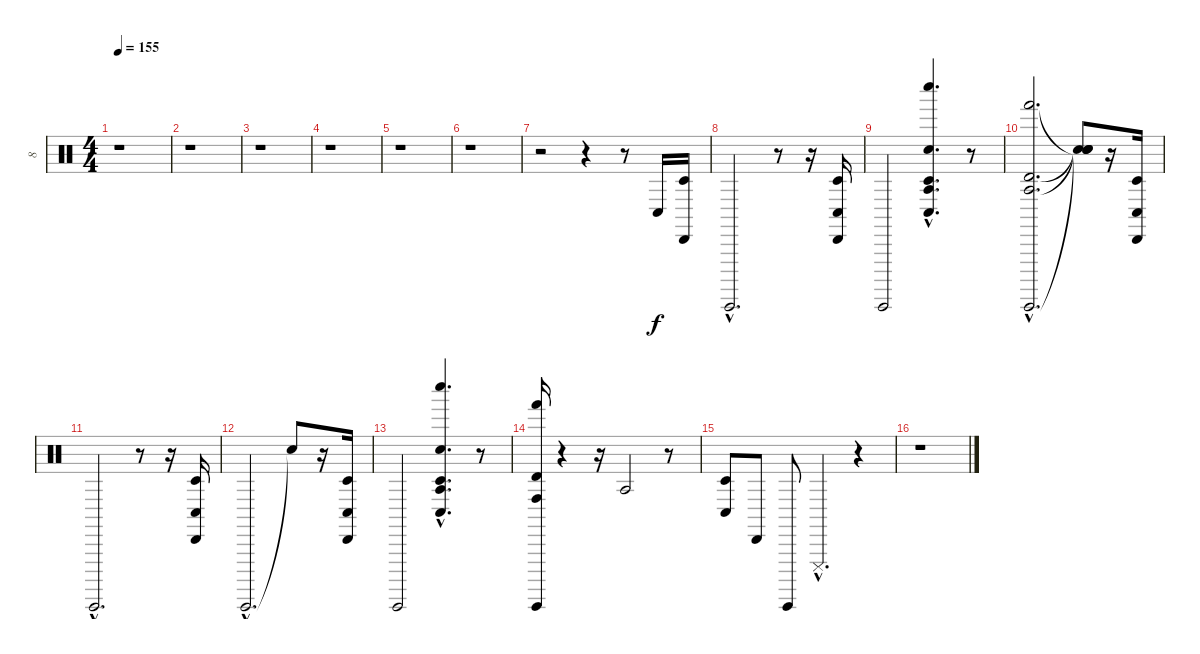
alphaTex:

\track ("8" "8") {instrument percussion}
\staff {score}
\articulation defaults
\ts (4 4)
\tempo 155
\clef neutral
\ks c
r.1{dy f} |
r.1 |
r.1 |
r.1 |
r.1 |
r.1 |
r.2 r.4 r.8 "Conga low (hit)".16 ("Timbale low (hit)" "Cabasa (hit)").16 |
"Guiro (hit)"{hac}.2{d} r.8 r.16 ("Conga low (hit)" "Timbale low (hit)" "Cabasa (hit)").16 |
"Guiro (hit)".2 ("Snare (hit)"{hac} "Whistle low (hit)"{hac} "Timbale low (hit)"{hac} "Agogo tow (hit)"{hac} "Conga low (hit)"{hac}).4{d} r.8 |
("Agogo tow (hit)"{hac} "Timbale high (hit)"{hac} "Hand (hit)"{hac} "Guiro (hit)"{hac}).2{d} ("Snare (hit)"{t} "Snare (hit)"{t} "Snare (hit)"{t} "Snare (hit)"{t}).8 r.16 ("Conga low (hit)" "Timbale low (hit)" "Cabasa (hit)").16 |
"Guiro (hit)"{hac}.2{d} r.8 r.16 ("Timbale low (hit)" "Conga low (hit)" "Cabasa (hit)").16 |
"Guiro (hit)"{hac}.2{d} "Snare (hit)"{t}.8 r.16 ("Conga low (hit)" "Timbale low (hit)" "Cabasa (hit)").16 |
"Guiro (hit)".2 ("Snare (hit)"{hac} "Whistle low (hit)"{hac} "Timbale low (hit)"{hac} "Conga low (hit)"{hac} "Agogo tow (hit)"{hac}).4{d} r.8 |
("Timbale high (hit)" "Guiro (hit)" "Hand (hit)" "Conga high (hit)").16 r.4 r.16 "Agogo tow (hit)".2 r.8 |
("Conga low (hit)" "Timbale low (hit)").8 "Cabasa (hit)".8 "Guiro (hit)".8 "Cuica (mute)"{hac}.4{d} r.4 |
r.1
